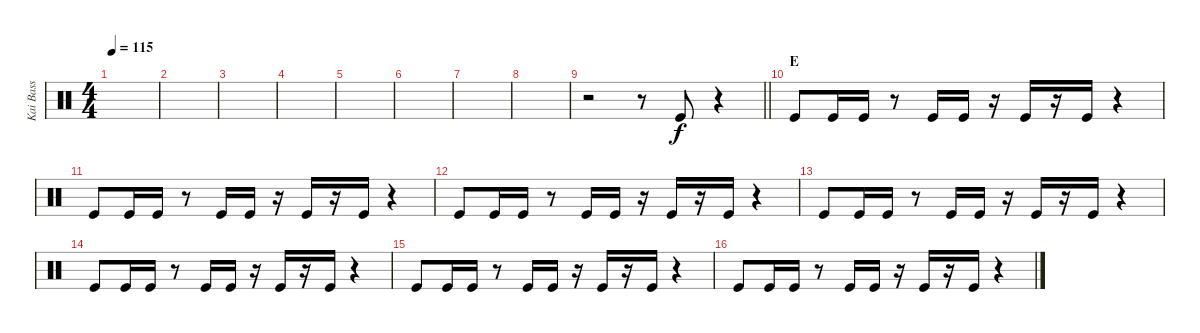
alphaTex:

\track ("Kai Bass" "Kai Bass") {instrument percussion}
\staff {score}
\articulation defaults
\ts (4 4)
\tempo 115
\clef neutral
\ks c
|
|
|
|
|
|
|
|
\barLineRight lightlight
r.2 r.8 "Kick (hit)".8 r.4 |
\section ("" "E")
"Kick (hit)".8 "Kick (hit)".16 "Kick (hit)".16 r.8 "Kick (hit)".16 "Kick (hit)".16 r.16 "Kick (hit)".16 r.16 "Kick (hit)".16 r.4 |
"Kick (hit)".8 "Kick (hit)".16 "Kick (hit)".16 r.8 "Kick (hit)".16 "Kick (hit)".16 r.16 "Kick (hit)".16 r.16 "Kick (hit)".16 r.4 |
"Kick (hit)".8 "Kick (hit)".16 "Kick (hit)".16 r.8 "Kick (hit)".16 "Kick (hit)".16 r.16 "Kick (hit)".16 r.16 "Kick (hit)".16 r.4 |
"Kick (hit)".8 "Kick (hit)".16 "Kick (hit)".16 r.8 "Kick (hit)".16 "Kick (hit)".16 r.16 "Kick (hit)".16 r.16 "Kick (hit)".16 r.4 |
"Kick (hit)".8 "Kick (hit)".16 "Kick (hit)".16 r.8 "Kick (hit)".16 "Kick (hit)".16 r.16 "Kick (hit)".16 r.16 "Kick (hit)".16 r.4 |
"Kick (hit)".8 "Kick (hit)".16 "Kick (hit)".16 r.8 "Kick (hit)".16 "Kick (hit)".16 r.16 "Kick (hit)".16 r.16 "Kick (hit)".16 r.4 |
"Kick (hit)".8 "Kick (hit)".16 "Kick (hit)".16 r.8 "Kick (hit)".16 "Kick (hit)".16 r.16 "Kick (hit)".16 r.16 "Kick (hit)".16 r.4
